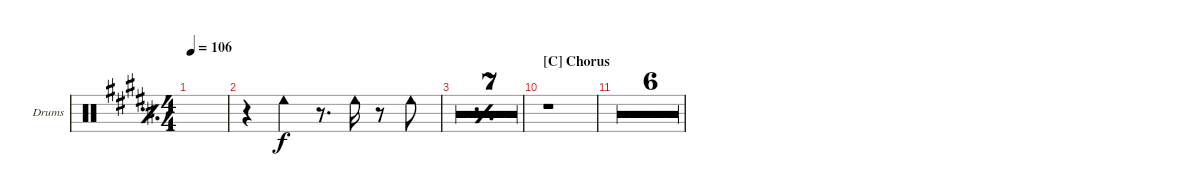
\defaultSystemsLayout 4
\bracketExtendMode groupsimilarinstruments
\firstSystemTrackNameOrientation horizontal
\otherSystemsTrackNameOrientation horizontal
\track ("Cowbell" "Drums") {multiBarRest instrument percussion}
\staff {score}
\articulation defaults
\ts (4 4)
\tempo 106
\clef neutral
\simile simple
\ks b
|
r.4 "Cowbell low (hit)".4 r.8{d} "Cowbell low (hit)".16 r.8 "Cowbell low (hit)".8 |
\simile simple
|
|
|
|
|
|
\simile none
r.1 |
\section ("C" "Chorus")
r.1 |
r.1 |
r.1 |
r.1 |
r.1 |
r.1 |
r.1
